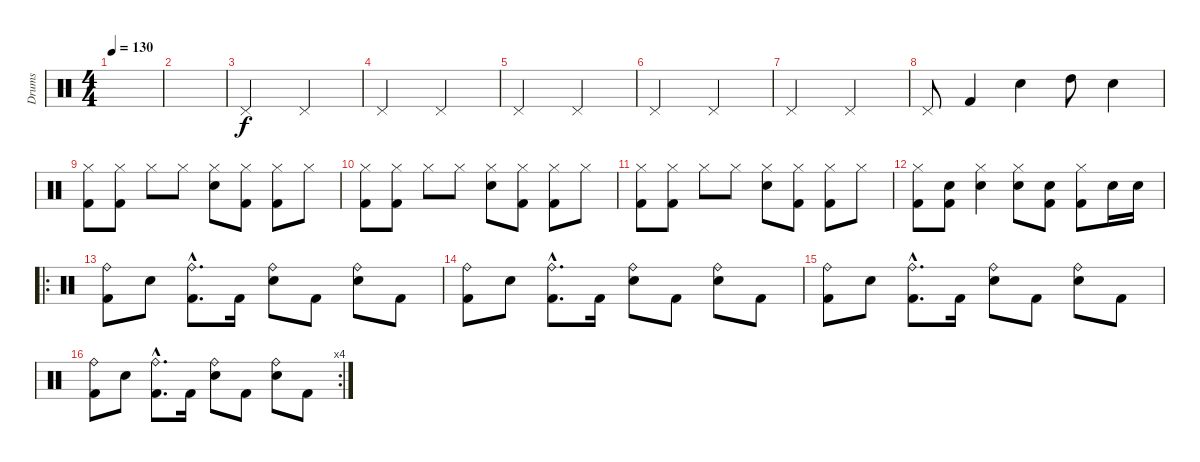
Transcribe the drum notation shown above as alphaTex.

\track ("Drums" "Drums") {instrument percussion}
\staff {score}
\articulation defaults
\ts (4 4)
\tempo 130
\clef neutral
\ks c
|
|
"Pedal Hi-Hat (hit)".2 "Pedal Hi-Hat (hit)".2 |
"Pedal Hi-Hat (hit)".2 "Pedal Hi-Hat (hit)".2 |
"Pedal Hi-Hat (hit)".2 "Pedal Hi-Hat (hit)".2 |
"Pedal Hi-Hat (hit)".2 "Pedal Hi-Hat (hit)".2 |
"Pedal Hi-Hat (hit)".2 "Pedal Hi-Hat (hit)".2 |
"Pedal Hi-Hat (hit)".8 "Kick (hit) 2".4 "Electric Snare (hit)".4 "High Tom (hit)".8 "Electric Snare (hit)".4 |
("Hi-Hat (closed)" "Kick (hit) 2").8 ("Hi-Hat (closed)" "Kick (hit) 2").8 "Hi-Hat (closed)".8 "Hi-Hat (closed)".8 ("Hi-Hat (closed)" "Electric Snare (hit)").8 ("Hi-Hat (closed)" "Kick (hit) 2").8 ("Hi-Hat (closed)" "Kick (hit) 2").8 "Hi-Hat (closed)".8 |
("Hi-Hat (closed)" "Kick (hit) 2").8 ("Hi-Hat (closed)" "Kick (hit) 2").8 "Hi-Hat (closed)".8 "Hi-Hat (closed)".8 ("Hi-Hat (closed)" "Electric Snare (hit)").8 ("Hi-Hat (closed)" "Kick (hit) 2").8 ("Hi-Hat (closed)" "Kick (hit) 2").8 "Hi-Hat (closed)".8 |
("Hi-Hat (closed)" "Kick (hit) 2").8 ("Hi-Hat (closed)" "Kick (hit) 2").8 "Hi-Hat (closed)".8 "Hi-Hat (closed)".8 ("Hi-Hat (closed)" "Electric Snare (hit)").8 ("Hi-Hat (closed)" "Kick (hit) 2").8 ("Hi-Hat (closed)" "Kick (hit) 2").8 "Hi-Hat (closed)".8 |
("Hi-Hat (closed)" "Kick (hit) 2").8 ("Electric Snare (hit)" "Kick (hit) 2").8 ("Hi-Hat (closed)" "Electric Snare (hit)").4 ("Hi-Hat (closed)" "Electric Snare (hit)").8 ("Electric Snare (hit)" "Kick (hit) 2").8 ("Hi-Hat (closed)" "Kick (hit) 2").8 "Electric Snare (hit)".16 "Electric Snare (hit)".16 |
\ro
("Ride (bell)" "Kick (hit) 2").8 "Electric Snare (hit)".8 ("Ride (bell)"{hac} "Kick (hit) 2"{hac}).8{d} "Kick (hit) 2".16 ("Ride (bell)" "Electric Snare (hit)").8 "Kick (hit) 2".8 ("Ride (bell)" "Electric Snare (hit)").8 "Kick (hit) 2".8 |
("Ride (bell)" "Kick (hit) 2").8 "Electric Snare (hit)".8 ("Ride (bell)"{hac} "Kick (hit) 2"{hac}).8{d} "Kick (hit) 2".16 ("Ride (bell)" "Electric Snare (hit)").8 "Kick (hit) 2".8 ("Ride (bell)" "Electric Snare (hit)").8 "Kick (hit) 2".8 |
("Ride (bell)" "Kick (hit) 2").8 "Electric Snare (hit)".8 ("Ride (bell)"{hac} "Kick (hit) 2"{hac}).8{d} "Kick (hit) 2".16 ("Ride (bell)" "Electric Snare (hit)").8 "Kick (hit) 2".8 ("Ride (bell)" "Electric Snare (hit)").8 "Kick (hit) 2".8 |
\rc 4
("Ride (bell)" "Kick (hit) 2").8 "Electric Snare (hit)".8 ("Ride (bell)"{hac} "Kick (hit) 2"{hac}).8{d} "Kick (hit) 2".16 ("Ride (bell)" "Electric Snare (hit)").8 "Kick (hit) 2".8 ("Ride (bell)" "Electric Snare (hit)").8 "Kick (hit) 2".8
